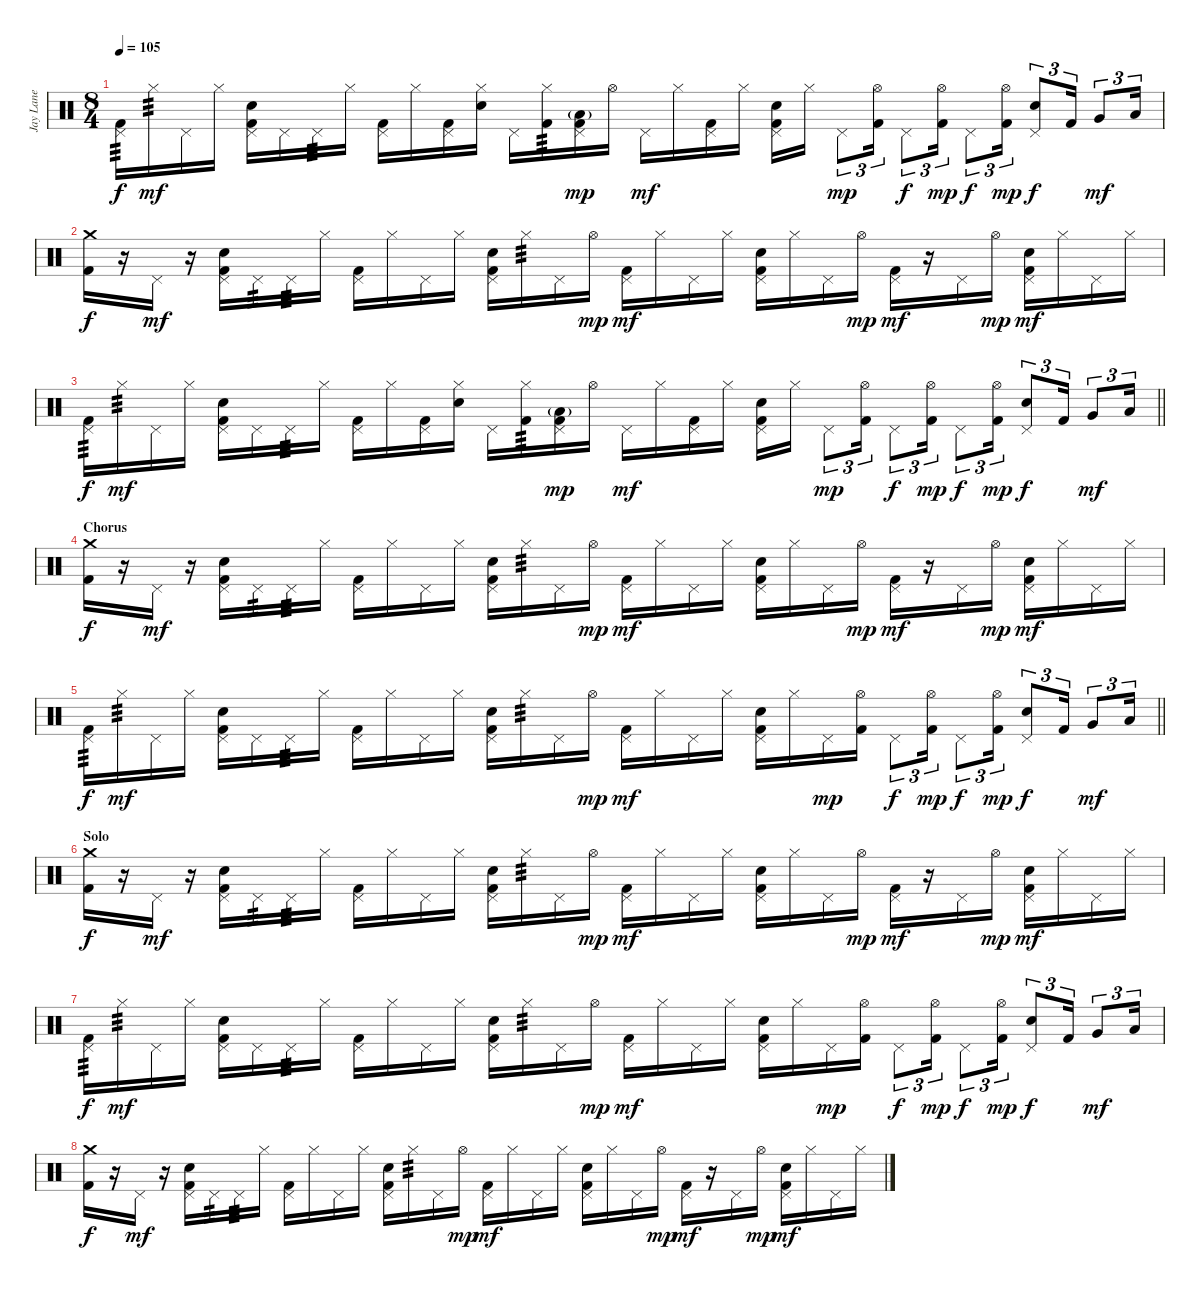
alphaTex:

\track ("Jay Lane" "Jay Lane") {instrument percussion}
\staff {score}
\articulation defaults
\ts (8 4)
\tempo 105
\clef neutral
\ks c
("Pedal Hi-Hat (hit)" "Kick (hit) 2").16{tp 3 dy f} "Hi-Hat (closed)".16{tp 3 dy mf} "Pedal Hi-Hat (hit)".16 "Hi-Hat (closed)".16 ("Pedal Hi-Hat (hit)" "Electric Snare (hit)" "Kick (hit) 2").16 "Pedal Hi-Hat (hit)".16 "Pedal Hi-Hat (hit)".16{tp 3} "Hi-Hat (closed)".16 ("Pedal Hi-Hat (hit)" "Kick (hit) 2").16 "Hi-Hat (closed)".16 ("Pedal Hi-Hat (hit)" "Kick (hit) 2").16 ("Hi-Hat (closed)" "Electric Snare (hit)").16 "Pedal Hi-Hat (hit)".16 ("Hi-Hat (closed)" "Kick (hit) 2").16{tp 3} ("Pedal Hi-Hat (hit)" "Low Floor Tom (hit)"{g} "Kick (hit) 2").16{dy mp} "Hi-Hat (open)".16 "Pedal Hi-Hat (hit)".16{dy mf} "Hi-Hat (closed)".16 ("Pedal Hi-Hat (hit)" "Kick (hit) 2").16 "Hi-Hat (closed)".16 ("Pedal Hi-Hat (hit)" "Electric Snare (hit)" "Kick (hit) 2").16 "Hi-Hat (closed)".16 "Pedal Hi-Hat (hit)".8{tu (3 2) dy mp} ("Hi-Hat (open)" "Kick (hit) 2").16{tu (3 2)} "Pedal Hi-Hat (hit)".8{tu (3 2) dy f} ("Hi-Hat (open)" "Kick (hit) 2").16{tu (3 2) dy mp} "Pedal Hi-Hat (hit)".8{tu (3 2) dy f} ("Hi-Hat (open)" "Kick (hit) 2").16{tu (3 2) dy mp} ("Pedal Hi-Hat (hit)" "Electric Snare (hit)").8{tu (3 2) dy f} "Kick (hit) 2".16{tu (3 2)} "Very Low Tom (hit)".8{tu (3 2) dy mf} "Low Floor Tom (hit)".16{tu (3 2)} |
("Crash medium (hit)" "Kick (hit) 2").16{dy f} r.16 "Pedal Hi-Hat (hit)".16{dy mf} r.16 ("Pedal Hi-Hat (hit)" "Electric Snare (hit)" "Kick (hit) 2").16 "Pedal Hi-Hat (hit)".16{tp 3} "Pedal Hi-Hat (hit)".16{tp 3} "Hi-Hat (closed)".16 ("Pedal Hi-Hat (hit)" "Kick (hit) 2").16 "Hi-Hat (closed)".16 "Pedal Hi-Hat (hit)".16 "Hi-Hat (closed)".16 ("Pedal Hi-Hat (hit)" "Electric Snare (hit)" "Kick (hit) 2").16 "Hi-Hat (closed)".16{tp 3} "Pedal Hi-Hat (hit)".16 "Hi-Hat (open)".16{dy mp} ("Pedal Hi-Hat (hit)" "Kick (hit) 2").16{dy mf} "Hi-Hat (closed)".16 "Pedal Hi-Hat (hit)".16 "Hi-Hat (closed)".16 ("Pedal Hi-Hat (hit)" "Electric Snare (hit)" "Kick (hit) 2").16 "Hi-Hat (closed)".16 "Pedal Hi-Hat (hit)".16 "Hi-Hat (open)".16{dy mp} ("Pedal Hi-Hat (hit)" "Kick (hit) 2").16{dy mf} r.16 "Pedal Hi-Hat (hit)".16 "Hi-Hat (open)".16{dy mp} ("Pedal Hi-Hat (hit)" "Electric Snare (hit)" "Kick (hit) 2").16{dy mf} "Hi-Hat (closed)".16 "Pedal Hi-Hat (hit)".16 "Hi-Hat (closed)".16 |
\barLineRight lightlight
("Pedal Hi-Hat (hit)" "Kick (hit) 2").16{tp 3 dy f} "Hi-Hat (closed)".16{tp 3 dy mf} "Pedal Hi-Hat (hit)".16 "Hi-Hat (closed)".16 ("Pedal Hi-Hat (hit)" "Electric Snare (hit)" "Kick (hit) 2").16 "Pedal Hi-Hat (hit)".16 "Pedal Hi-Hat (hit)".16{tp 3} "Hi-Hat (closed)".16 ("Pedal Hi-Hat (hit)" "Kick (hit) 2").16 "Hi-Hat (closed)".16 ("Pedal Hi-Hat (hit)" "Kick (hit) 2").16 ("Hi-Hat (closed)" "Electric Snare (hit)").16 "Pedal Hi-Hat (hit)".16 ("Hi-Hat (closed)" "Kick (hit) 2").16{tp 3} ("Pedal Hi-Hat (hit)" "Low Floor Tom (hit)"{g} "Kick (hit) 2").16{dy mp} "Hi-Hat (open)".16 "Pedal Hi-Hat (hit)".16{dy mf} "Hi-Hat (closed)".16 ("Pedal Hi-Hat (hit)" "Kick (hit) 2").16 "Hi-Hat (closed)".16 ("Pedal Hi-Hat (hit)" "Electric Snare (hit)" "Kick (hit) 2").16 "Hi-Hat (closed)".16 "Pedal Hi-Hat (hit)".8{tu (3 2) dy mp} ("Hi-Hat (open)" "Kick (hit) 2").16{tu (3 2)} "Pedal Hi-Hat (hit)".8{tu (3 2) dy f} ("Hi-Hat (open)" "Kick (hit) 2").16{tu (3 2) dy mp} "Pedal Hi-Hat (hit)".8{tu (3 2) dy f} ("Hi-Hat (open)" "Kick (hit) 2").16{tu (3 2) dy mp} ("Pedal Hi-Hat (hit)" "Electric Snare (hit)").8{tu (3 2) dy f} "Kick (hit) 2".16{tu (3 2)} "Very Low Tom (hit)".8{tu (3 2) dy mf} "Low Floor Tom (hit)".16{tu (3 2)} |
\section ("" "Chorus")
("Crash medium (hit)" "Kick (hit) 2").16{dy f} r.16 "Pedal Hi-Hat (hit)".16{dy mf} r.16 ("Pedal Hi-Hat (hit)" "Electric Snare (hit)" "Kick (hit) 2").16 "Pedal Hi-Hat (hit)".16{tp 3} "Pedal Hi-Hat (hit)".16{tp 3} "Hi-Hat (closed)".16 ("Pedal Hi-Hat (hit)" "Kick (hit) 2").16 "Hi-Hat (closed)".16 "Pedal Hi-Hat (hit)".16 "Hi-Hat (closed)".16 ("Pedal Hi-Hat (hit)" "Electric Snare (hit)" "Kick (hit) 2").16 "Hi-Hat (closed)".16{tp 3} "Pedal Hi-Hat (hit)".16 "Hi-Hat (open)".16{dy mp} ("Pedal Hi-Hat (hit)" "Kick (hit) 2").16{dy mf} "Hi-Hat (closed)".16 "Pedal Hi-Hat (hit)".16 "Hi-Hat (closed)".16 ("Pedal Hi-Hat (hit)" "Electric Snare (hit)" "Kick (hit) 2").16 "Hi-Hat (closed)".16 "Pedal Hi-Hat (hit)".16 "Hi-Hat (open)".16{dy mp} ("Pedal Hi-Hat (hit)" "Kick (hit) 2").16{dy mf} r.16 "Pedal Hi-Hat (hit)".16 "Hi-Hat (open)".16{dy mp} ("Pedal Hi-Hat (hit)" "Electric Snare (hit)" "Kick (hit) 2").16{dy mf} "Hi-Hat (closed)".16 "Pedal Hi-Hat (hit)".16 "Hi-Hat (closed)".16 |
\barLineRight lightlight
("Pedal Hi-Hat (hit)" "Kick (hit) 2").16{tp 3 dy f} "Hi-Hat (closed)".16{tp 3 dy mf} "Pedal Hi-Hat (hit)".16 "Hi-Hat (closed)".16 ("Pedal Hi-Hat (hit)" "Electric Snare (hit)" "Kick (hit) 2").16 "Pedal Hi-Hat (hit)".16 "Pedal Hi-Hat (hit)".16{tp 3} "Hi-Hat (closed)".16 ("Pedal Hi-Hat (hit)" "Kick (hit) 2").16 "Hi-Hat (closed)".16 "Pedal Hi-Hat (hit)".16 "Hi-Hat (closed)".16 ("Pedal Hi-Hat (hit)" "Electric Snare (hit)" "Kick (hit) 2").16 "Hi-Hat (closed)".16{tp 3} "Pedal Hi-Hat (hit)".16 "Hi-Hat (open)".16{dy mp} ("Pedal Hi-Hat (hit)" "Kick (hit) 2").16{dy mf} "Hi-Hat (closed)".16 "Pedal Hi-Hat (hit)".16 "Hi-Hat (closed)".16 ("Pedal Hi-Hat (hit)" "Electric Snare (hit)" "Kick (hit) 2").16 "Hi-Hat (closed)".16 "Pedal Hi-Hat (hit)".16{dy mp} ("Hi-Hat (open)" "Kick (hit) 2").16 "Pedal Hi-Hat (hit)".8{tu (3 2) dy f} ("Hi-Hat (open)" "Kick (hit) 2").16{tu (3 2) dy mp} "Pedal Hi-Hat (hit)".8{tu (3 2) dy f} ("Hi-Hat (open)" "Kick (hit) 2").16{tu (3 2) dy mp} ("Pedal Hi-Hat (hit)" "Electric Snare (hit)").8{tu (3 2) dy f} "Kick (hit) 2".16{tu (3 2)} "Very Low Tom (hit)".8{tu (3 2) dy mf} "Low Floor Tom (hit)".16{tu (3 2)} |
\section ("" "Solo")
("Crash medium (hit)" "Kick (hit) 2").16{dy f} r.16 "Pedal Hi-Hat (hit)".16{dy mf} r.16 ("Pedal Hi-Hat (hit)" "Electric Snare (hit)" "Kick (hit) 2").16 "Pedal Hi-Hat (hit)".16{tp 3} "Pedal Hi-Hat (hit)".16{tp 3} "Hi-Hat (closed)".16 ("Pedal Hi-Hat (hit)" "Kick (hit) 2").16 "Hi-Hat (closed)".16 "Pedal Hi-Hat (hit)".16 "Hi-Hat (closed)".16 ("Pedal Hi-Hat (hit)" "Electric Snare (hit)" "Kick (hit) 2").16 "Hi-Hat (closed)".16{tp 3} "Pedal Hi-Hat (hit)".16 "Hi-Hat (open)".16{dy mp} ("Pedal Hi-Hat (hit)" "Kick (hit) 2").16{dy mf} "Hi-Hat (closed)".16 "Pedal Hi-Hat (hit)".16 "Hi-Hat (closed)".16 ("Pedal Hi-Hat (hit)" "Electric Snare (hit)" "Kick (hit) 2").16 "Hi-Hat (closed)".16 "Pedal Hi-Hat (hit)".16 "Hi-Hat (open)".16{dy mp} ("Pedal Hi-Hat (hit)" "Kick (hit) 2").16{dy mf} r.16 "Pedal Hi-Hat (hit)".16 "Hi-Hat (open)".16{dy mp} ("Pedal Hi-Hat (hit)" "Electric Snare (hit)" "Kick (hit) 2").16{dy mf} "Hi-Hat (closed)".16 "Pedal Hi-Hat (hit)".16 "Hi-Hat (closed)".16 |
("Pedal Hi-Hat (hit)" "Kick (hit) 2").16{tp 3 dy f} "Hi-Hat (closed)".16{tp 3 dy mf} "Pedal Hi-Hat (hit)".16 "Hi-Hat (closed)".16 ("Pedal Hi-Hat (hit)" "Electric Snare (hit)" "Kick (hit) 2").16 "Pedal Hi-Hat (hit)".16 "Pedal Hi-Hat (hit)".16{tp 3} "Hi-Hat (closed)".16 ("Pedal Hi-Hat (hit)" "Kick (hit) 2").16 "Hi-Hat (closed)".16 "Pedal Hi-Hat (hit)".16 "Hi-Hat (closed)".16 ("Pedal Hi-Hat (hit)" "Electric Snare (hit)" "Kick (hit) 2").16 "Hi-Hat (closed)".16{tp 3} "Pedal Hi-Hat (hit)".16 "Hi-Hat (open)".16{dy mp} ("Pedal Hi-Hat (hit)" "Kick (hit) 2").16{dy mf} "Hi-Hat (closed)".16 "Pedal Hi-Hat (hit)".16 "Hi-Hat (closed)".16 ("Pedal Hi-Hat (hit)" "Electric Snare (hit)" "Kick (hit) 2").16 "Hi-Hat (closed)".16 "Pedal Hi-Hat (hit)".16{dy mp} ("Hi-Hat (open)" "Kick (hit) 2").16 "Pedal Hi-Hat (hit)".8{tu (3 2) dy f} ("Hi-Hat (open)" "Kick (hit) 2").16{tu (3 2) dy mp} "Pedal Hi-Hat (hit)".8{tu (3 2) dy f} ("Hi-Hat (open)" "Kick (hit) 2").16{tu (3 2) dy mp} ("Pedal Hi-Hat (hit)" "Electric Snare (hit)").8{tu (3 2) dy f} "Kick (hit) 2".16{tu (3 2)} "Very Low Tom (hit)".8{tu (3 2) dy mf} "Low Floor Tom (hit)".16{tu (3 2)} |
("Crash medium (hit)" "Kick (hit) 2").16{dy f} r.16 "Pedal Hi-Hat (hit)".16{dy mf} r.16 ("Pedal Hi-Hat (hit)" "Electric Snare (hit)" "Kick (hit) 2").16 "Pedal Hi-Hat (hit)".16{tp 3} "Pedal Hi-Hat (hit)".16{tp 3} "Hi-Hat (closed)".16 ("Pedal Hi-Hat (hit)" "Kick (hit) 2").16 "Hi-Hat (closed)".16 "Pedal Hi-Hat (hit)".16 "Hi-Hat (closed)".16 ("Pedal Hi-Hat (hit)" "Electric Snare (hit)" "Kick (hit) 2").16 "Hi-Hat (closed)".16{tp 3} "Pedal Hi-Hat (hit)".16 "Hi-Hat (open)".16{dy mp} ("Pedal Hi-Hat (hit)" "Kick (hit) 2").16{dy mf} "Hi-Hat (closed)".16 "Pedal Hi-Hat (hit)".16 "Hi-Hat (closed)".16 ("Pedal Hi-Hat (hit)" "Electric Snare (hit)" "Kick (hit) 2").16 "Hi-Hat (closed)".16 "Pedal Hi-Hat (hit)".16 "Hi-Hat (open)".16{dy mp} ("Pedal Hi-Hat (hit)" "Kick (hit) 2").16{dy mf} r.16 "Pedal Hi-Hat (hit)".16 "Hi-Hat (open)".16{dy mp} ("Pedal Hi-Hat (hit)" "Electric Snare (hit)" "Kick (hit) 2").16{dy mf} "Hi-Hat (closed)".16 "Pedal Hi-Hat (hit)".16 "Hi-Hat (closed)".16
